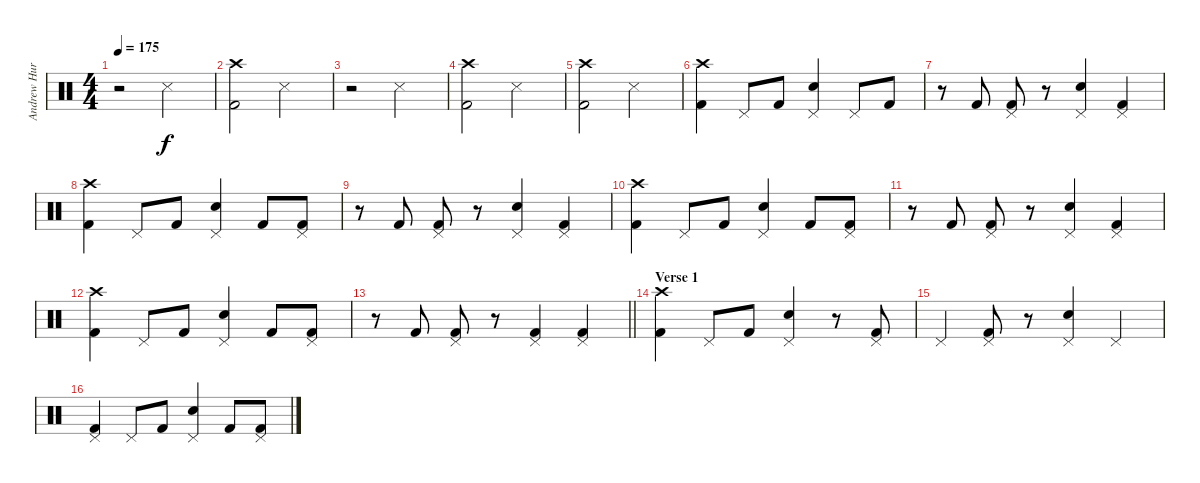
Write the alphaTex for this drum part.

\track ("Andrew Hurley (Drums)" "Andrew Hur") {instrument percussion}
\staff {score}
\articulation defaults
\ts (4 4)
\tempo 175
\clef neutral
\ks c
r.2{dy f} "Snare (side stick) 3".2 |
("Crash high (hit)" "Kick (hit) 2").2 "Snare (side stick) 3".2 |
r.2 "Snare (side stick) 3".2 |
("Crash high (hit)" "Kick (hit) 2").2 "Snare (side stick) 3".2 |
("Crash high (hit)" "Kick (hit) 2").2 "Snare (side stick) 3".2 |
("Crash high (hit)" "Kick (hit) 2").4 "Pedal Hi-Hat (hit)".8 "Kick (hit) 2".8 ("Pedal Hi-Hat (hit)" "Snare (hit) 2").4 "Pedal Hi-Hat (hit)".8 "Kick (hit) 2".8 |
r.8 "Kick (hit) 2".8 ("Pedal Hi-Hat (hit)" "Kick (hit) 2").8 r.8 ("Pedal Hi-Hat (hit)" "Snare (hit) 2").4 ("Pedal Hi-Hat (hit)" "Kick (hit) 2").4 |
("Crash high (hit)" "Kick (hit) 2").4 "Pedal Hi-Hat (hit)".8 "Kick (hit) 2".8 ("Pedal Hi-Hat (hit)" "Snare (hit) 2").4 "Kick (hit) 2".8 ("Pedal Hi-Hat (hit)" "Kick (hit) 2").8 |
r.8 "Kick (hit) 2".8 ("Pedal Hi-Hat (hit)" "Kick (hit) 2").8 r.8 ("Pedal Hi-Hat (hit)" "Snare (hit) 2").4 ("Pedal Hi-Hat (hit)" "Kick (hit) 2").4 |
("Crash high (hit)" "Kick (hit) 2").4 "Pedal Hi-Hat (hit)".8 "Kick (hit) 2".8 ("Pedal Hi-Hat (hit)" "Snare (hit) 2").4 "Kick (hit) 2".8 ("Pedal Hi-Hat (hit)" "Kick (hit) 2").8 |
r.8 "Kick (hit) 2".8 ("Pedal Hi-Hat (hit)" "Kick (hit) 2").8 r.8 ("Pedal Hi-Hat (hit)" "Snare (hit) 2").4 ("Pedal Hi-Hat (hit)" "Kick (hit) 2").4 |
("Crash high (hit)" "Kick (hit) 2").4 "Pedal Hi-Hat (hit)".8 "Kick (hit) 2".8 ("Pedal Hi-Hat (hit)" "Snare (hit) 2").4 "Kick (hit) 2".8 ("Pedal Hi-Hat (hit)" "Kick (hit) 2").8 |
\barLineRight lightlight
r.8 "Kick (hit) 2".8 ("Pedal Hi-Hat (hit)" "Kick (hit) 2").8 r.8 ("Pedal Hi-Hat (hit)" "Kick (hit) 2").4 ("Pedal Hi-Hat (hit)" "Kick (hit) 2").4 |
\section ("" "Verse 1")
("Crash high (hit)" "Kick (hit) 2").4 "Pedal Hi-Hat (hit)".8 "Kick (hit) 2".8 ("Pedal Hi-Hat (hit)" "Snare (hit) 2").4 r.8 ("Pedal Hi-Hat (hit)" "Kick (hit) 2").8 |
"Pedal Hi-Hat (hit)".4 ("Pedal Hi-Hat (hit)" "Kick (hit) 2").8 r.8 ("Pedal Hi-Hat (hit)" "Snare (hit) 2").4 "Pedal Hi-Hat (hit)".4 |
("Pedal Hi-Hat (hit)" "Kick (hit) 2").4 "Pedal Hi-Hat (hit)".8 "Kick (hit) 2".8 ("Pedal Hi-Hat (hit)" "Snare (hit) 2").4 "Kick (hit) 2".8 ("Pedal Hi-Hat (hit)" "Kick (hit) 2").8
